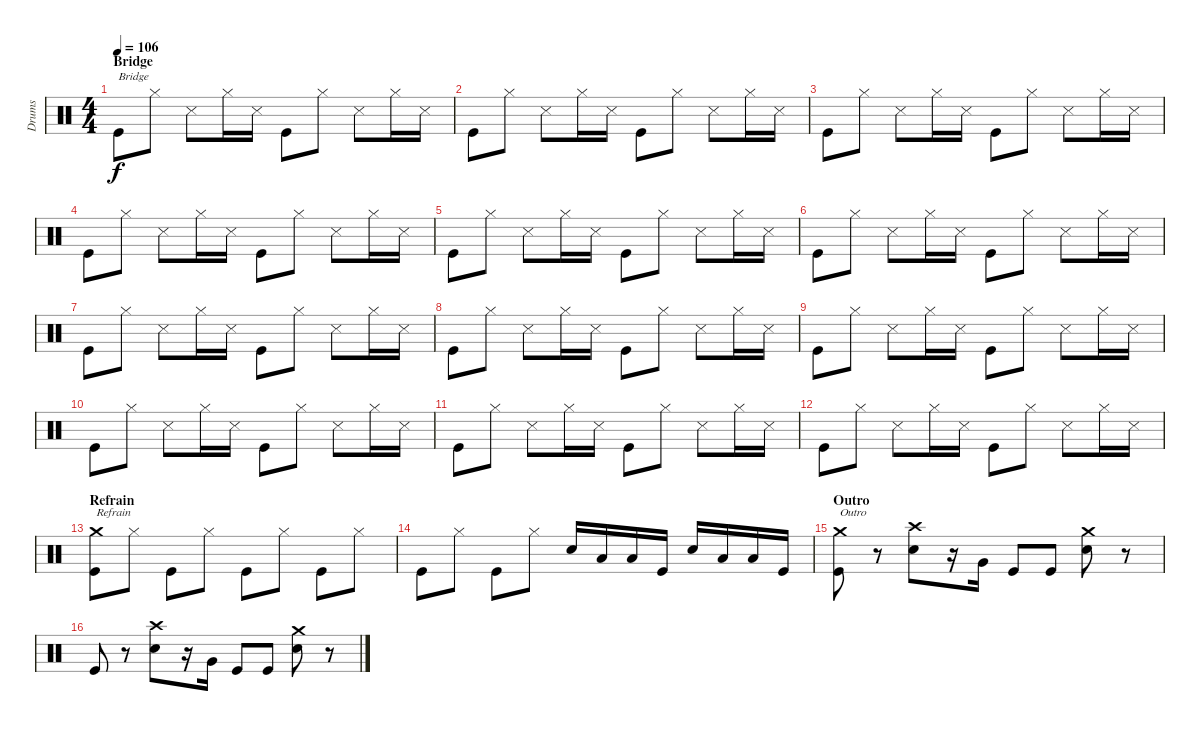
\track ("Drums" "Drums") {instrument percussion}
\staff {score}
\articulation defaults
\ts (4 4)
\section ("" "Bridge")
\tempo 106
\clef neutral
\ks c "Kick (hit)".8{txt "Bridge" dy f} "Hi-Hat (closed)".8 "Snare (side stick) 3".8 "Hi-Hat (closed)".16 "Snare (side stick) 3".16 "Kick (hit)".8 "Hi-Hat (closed)".8 "Snare (side stick) 3".8 "Hi-Hat (closed)".16 "Snare (side stick) 3".16
|
"Kick (hit)".8 "Hi-Hat (closed)".8 "Snare (side stick) 3".8 "Hi-Hat (closed)".16 "Snare (side stick) 3".16 "Kick (hit)".8 "Hi-Hat (closed)".8 "Snare (side stick) 3".8 "Hi-Hat (closed)".16 "Snare (side stick) 3".16 |
"Kick (hit)".8 "Hi-Hat (closed)".8 "Snare (side stick) 3".8 "Hi-Hat (closed)".16 "Snare (side stick) 3".16 "Kick (hit)".8 "Hi-Hat (closed)".8 "Snare (side stick) 3".8 "Hi-Hat (closed)".16 "Snare (side stick) 3".16 |
"Kick (hit)".8 "Hi-Hat (closed)".8 "Snare (side stick) 3".8 "Hi-Hat (closed)".16 "Snare (side stick) 3".16 "Kick (hit)".8 "Hi-Hat (closed)".8 "Snare (side stick) 3".8 "Hi-Hat (closed)".16 "Snare (side stick) 3".16 |
"Kick (hit)".8 "Hi-Hat (closed)".8 "Snare (side stick) 3".8 "Hi-Hat (closed)".16 "Snare (side stick) 3".16 "Kick (hit)".8 "Hi-Hat (closed)".8 "Snare (side stick) 3".8 "Hi-Hat (closed)".16 "Snare (side stick) 3".16 |
"Kick (hit)".8 "Hi-Hat (closed)".8 "Snare (side stick) 3".8 "Hi-Hat (closed)".16 "Snare (side stick) 3".16 "Kick (hit)".8 "Hi-Hat (closed)".8 "Snare (side stick) 3".8 "Hi-Hat (closed)".16 "Snare (side stick) 3".16 |
"Kick (hit)".8 "Hi-Hat (closed)".8 "Snare (side stick) 3".8 "Hi-Hat (closed)".16 "Snare (side stick) 3".16 "Kick (hit)".8 "Hi-Hat (closed)".8 "Snare (side stick) 3".8 "Hi-Hat (closed)".16 "Snare (side stick) 3".16 |
"Kick (hit)".8 "Hi-Hat (closed)".8 "Snare (side stick) 3".8 "Hi-Hat (closed)".16 "Snare (side stick) 3".16 "Kick (hit)".8 "Hi-Hat (closed)".8 "Snare (side stick) 3".8 "Hi-Hat (closed)".16 "Snare (side stick) 3".16 |
"Kick (hit)".8 "Hi-Hat (closed)".8 "Snare (side stick) 3".8 "Hi-Hat (closed)".16 "Snare (side stick) 3".16 "Kick (hit)".8 "Hi-Hat (closed)".8 "Snare (side stick) 3".8 "Hi-Hat (closed)".16 "Snare (side stick) 3".16 |
"Kick (hit)".8 "Hi-Hat (closed)".8 "Snare (side stick) 3".8 "Hi-Hat (closed)".16 "Snare (side stick) 3".16 "Kick (hit)".8 "Hi-Hat (closed)".8 "Snare (side stick) 3".8 "Hi-Hat (closed)".16 "Snare (side stick) 3".16 |
"Kick (hit)".8 "Hi-Hat (closed)".8 "Snare (side stick) 3".8 "Hi-Hat (closed)".16 "Snare (side stick) 3".16 "Kick (hit)".8 "Hi-Hat (closed)".8 "Snare (side stick) 3".8 "Hi-Hat (closed)".16 "Snare (side stick) 3".16 |
"Kick (hit)".8 "Hi-Hat (closed)".8 "Snare (side stick) 3".8 "Hi-Hat (closed)".16 "Snare (side stick) 3".16 "Kick (hit)".8 "Hi-Hat (closed)".8 "Snare (side stick) 3".8 "Hi-Hat (closed)".16 "Snare (side stick) 3".16 |
\section ("" "Refrain")
("Kick (hit)" "Crash medium (hit)").8{txt "Refrain"} "Hi-Hat (closed)".8 "Kick (hit)".8 "Hi-Hat (closed)".8 "Kick (hit)".8 "Hi-Hat (closed)".8 "Kick (hit)".8 "Hi-Hat (closed)".8 |
"Kick (hit)".8 "Hi-Hat (closed)".8 "Kick (hit)".8 "Hi-Hat (closed)".8 "Electric Snare (hit)".16 "Low Floor Tom (hit)".16 "Low Floor Tom (hit)".16 "Kick (hit)".16 "Electric Snare (hit)".16 "Low Floor Tom (hit)".16 "Low Floor Tom (hit)".16 "Kick (hit)".16 |
\section ("" "Outro")
("Kick (hit)" "Crash medium (hit)").8{txt "Outro"} r.8 ("Electric Snare (hit)" "Crash high (hit)").8 r.16 "Very Low Tom (hit)".16 "Kick (hit)".8 "Kick (hit)".8 ("Electric Snare (hit)" "Crash medium (hit)").8 r.8 |
"Kick (hit)".8 r.8 ("Electric Snare (hit)" "Crash high (hit)").8 r.16 "Very Low Tom (hit)".16 "Kick (hit)".8 "Kick (hit)".8 ("Electric Snare (hit)" "Crash medium (hit)").8 r.8
